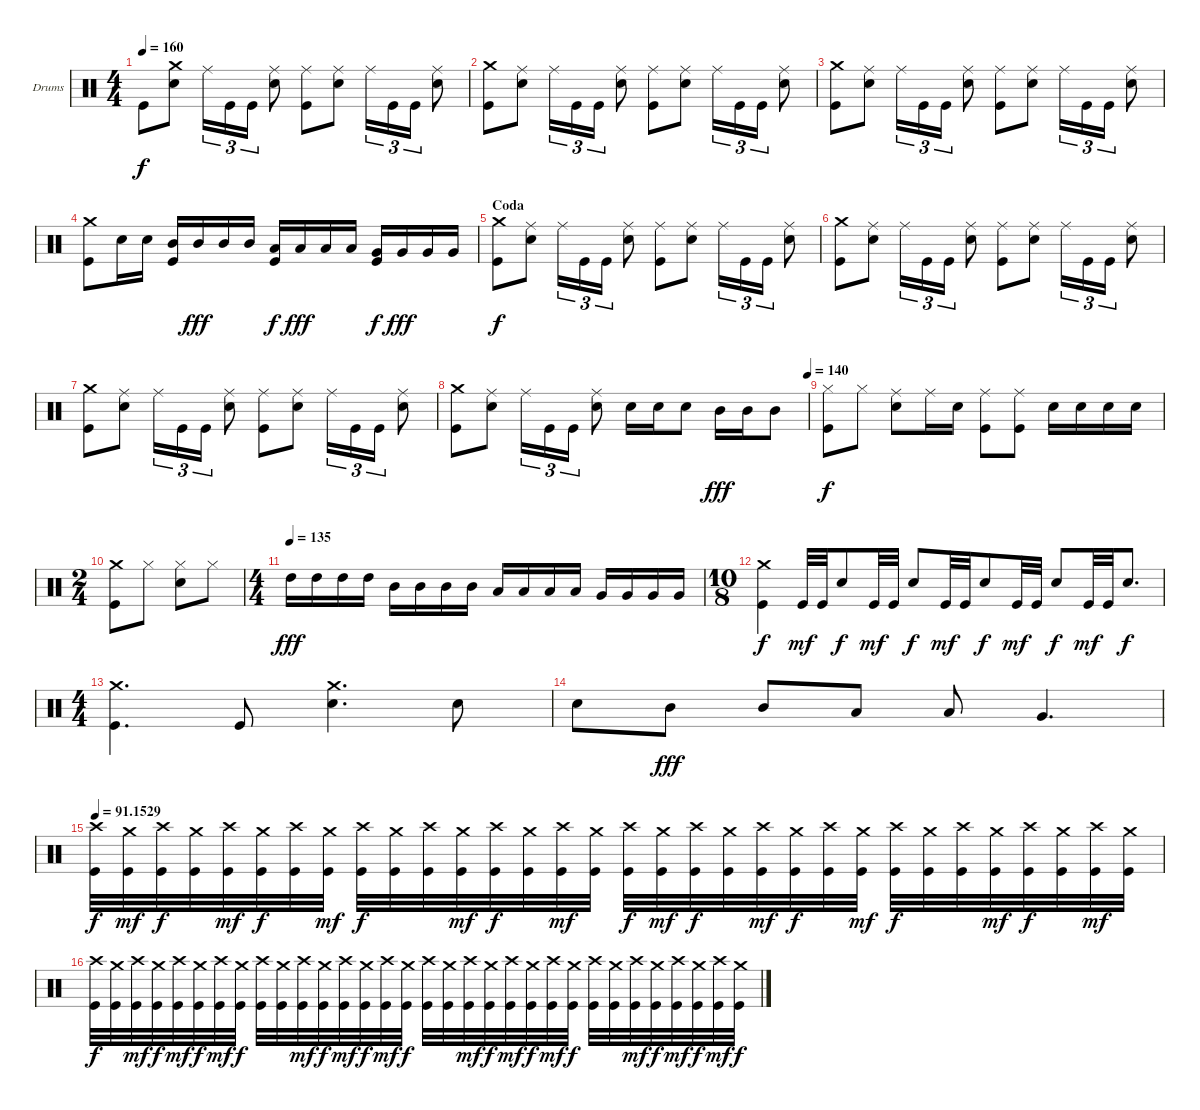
\bracketExtendMode groupsimilarinstruments
\firstSystemTrackNameOrientation horizontal
\otherSystemsTrackNameOrientation horizontal
\track ("Drums" "Drums") {instrument percussion}
\staff {score}
\articulation defaults
\ts (4 4)
\tempo 160
\clef neutral
\ks c "Kick (hit)".8{dy f}
("Crash medium (hit)" "Snare (hit) 2").8 "Ride (middle)".16{tu (3 2)} "Kick (hit)".16{tu (3 2)} "Kick (hit)".16{tu (3 2)} ("Ride (middle)" "Snare (hit) 2").8 ("Ride (middle)" "Kick (hit)").8 ("Ride (middle)" "Snare (hit) 2").8 "Ride (middle)".16{tu (3 2)} "Kick (hit)".16{tu (3 2)} "Kick (hit)".16{tu (3 2)} ("Ride (middle)" "Snare (hit) 2").8 |
("Crash medium (hit)" "Kick (hit)").8 ("Ride (middle)" "Snare (hit) 2").8 "Ride (middle)".16{tu (3 2)} "Kick (hit)".16{tu (3 2)} "Kick (hit)".16{tu (3 2)} ("Ride (middle)" "Snare (hit) 2").8 ("Ride (middle)" "Kick (hit)").8 ("Ride (middle)" "Snare (hit) 2").8 "Ride (middle)".16{tu (3 2)} "Kick (hit)".16{tu (3 2)} "Kick (hit)".16{tu (3 2)} ("Ride (middle)" "Snare (hit) 2").8 |
("Crash medium (hit)" "Kick (hit)").8 ("Ride (middle)" "Snare (hit) 2").8 "Ride (middle)".16{tu (3 2)} "Kick (hit)".16{tu (3 2)} "Kick (hit)".16{tu (3 2)} ("Ride (middle)" "Snare (hit) 2").8 ("Ride (middle)" "Kick (hit)").8 ("Ride (middle)" "Snare (hit) 2").8 "Ride (middle)".16{tu (3 2)} "Kick (hit)".16{tu (3 2)} "Kick (hit)".16{tu (3 2)} ("Ride (middle)" "Snare (hit) 2").8 |
("Crash medium (hit)" "Kick (hit)").8 "Snare (hit) 2".16 "Snare (hit) 2".16 ("Mid Tom (hit)" "Kick (hit)").16 "Mid Tom (hit)".16{dy fff} "Mid Tom (hit)".16 "Mid Tom (hit)".16 ("Low Tom (hit)" "Kick (hit)").16{dy f} "Low Tom (hit)".16{dy fff} "Low Tom (hit)".16 "Low Tom (hit)".16 ("Very Low Tom (hit)" "Kick (hit)").16{dy f} "Very Low Tom (hit)".16{dy fff} "Very Low Tom (hit)".16 "Very Low Tom (hit)".16 |
\section ("" "Coda")
("Crash medium (hit)" "Kick (hit)").8{dy f} ("Ride (middle)" "Snare (hit) 2").8 "Ride (middle)".16{tu (3 2)} "Kick (hit)".16{tu (3 2)} "Kick (hit)".16{tu (3 2)} ("Ride (middle)" "Snare (hit) 2").8 ("Ride (middle)" "Kick (hit)").8 ("Ride (middle)" "Snare (hit) 2").8 "Ride (middle)".16{tu (3 2)} "Kick (hit)".16{tu (3 2)} "Kick (hit)".16{tu (3 2)} ("Ride (middle)" "Snare (hit) 2").8 |
("Crash medium (hit)" "Kick (hit)").8 ("Ride (middle)" "Snare (hit) 2").8 "Ride (middle)".16{tu (3 2)} "Kick (hit)".16{tu (3 2)} "Kick (hit)".16{tu (3 2)} ("Ride (middle)" "Snare (hit) 2").8 ("Ride (middle)" "Kick (hit)").8 ("Ride (middle)" "Snare (hit) 2").8 "Ride (middle)".16{tu (3 2)} "Kick (hit)".16{tu (3 2)} "Kick (hit)".16{tu (3 2)} ("Ride (middle)" "Snare (hit) 2").8 |
("Crash medium (hit)" "Kick (hit)").8 ("Ride (middle)" "Snare (hit) 2").8 "Ride (middle)".16{tu (3 2)} "Kick (hit)".16{tu (3 2)} "Kick (hit)".16{tu (3 2)} ("Ride (middle)" "Snare (hit) 2").8 ("Ride (middle)" "Kick (hit)").8 ("Ride (middle)" "Snare (hit) 2").8 "Ride (middle)".16{tu (3 2)} "Kick (hit)".16{tu (3 2)} "Kick (hit)".16{tu (3 2)} ("Ride (middle)" "Snare (hit) 2").8 |
\tempo (140 1)
("Crash medium (hit)" "Kick (hit)").8 ("Ride (middle)" "Snare (hit) 2").8 "Ride (middle)".16{tu (3 2)} "Kick (hit)".16{tu (3 2)} "Kick (hit)".16{tu (3 2)} ("Ride (middle)" "Snare (hit) 2").8 "Snare (hit) 2".16 "Snare (hit) 2".16 "Snare (hit) 2".8 "Mid Tom (hit)".16{dy fff} "Mid Tom (hit)".16 "Mid Tom (hit)".8 |
("Hi-Hat (closed)" "Kick (hit)").8{dy f} "Hi-Hat (closed)".8 ("Snare (hit) 2" "Ride (middle)").8 "Ride (middle)".16 "Snare (hit) 2".16 ("Kick (hit)" "Ride (middle)").8 ("Kick (hit)" "Ride (middle)").8 "Snare (hit) 2".16 "Snare (hit) 2".16 "Snare (hit) 2".16 "Snare (hit) 2".16 |
\ts (2 4)
("Crash medium (hit)" "Kick (hit)").8 "Hi-Hat (closed)".8 ("Hi-Hat (closed)" "Snare (hit) 2").8 "Hi-Hat (closed)".8 |
\ts (4 4)
\tempo (135)
"High Tom (hit)".16{dy fff} "High Tom (hit)".16 "High Tom (hit)".16 "High Tom (hit)".16 "Mid Tom (hit)".16 "Mid Tom (hit)".16 "Mid Tom (hit)".16 "Mid Tom (hit)".16 "Low Tom (hit)".16 "Low Tom (hit)".16 "Low Tom (hit)".16 "Low Tom (hit)".16 "Very Low Tom (hit)".16 "Very Low Tom (hit)".16 "Very Low Tom (hit)".16 "Very Low Tom (hit)".16 |
\ts (10 8)
("Crash medium (hit)" "Kick (hit)").4{dy f} "Kick (hit)".32{dy mf} "Kick (hit)".32 "Snare (hit) 2".8{dy f} "Kick (hit)".32{dy mf} "Kick (hit)".32 "Snare (hit) 2".8{dy f} "Kick (hit)".32{dy mf} "Kick (hit)".32 "Snare (hit) 2".8{dy f} "Kick (hit)".32{dy mf} "Kick (hit)".32 "Snare (hit) 2".8{dy f} "Kick (hit)".32{dy mf} "Kick (hit)".32 "Snare (hit) 2".8{d dy f} |
\ts (4 4)
("Crash medium (hit)" "Kick (hit)").4{d} "Kick (hit)".8 ("Snare (hit) 2" "Crash medium (hit)").4{d} "Snare (hit) 2".8 |
"Snare (hit) 2".8 "Mid Tom (hit)".8{dy fff} "Mid Tom (hit)".8 "Low Tom (hit)".8 "Low Tom (hit)".8 "Very Low Tom (hit)".4{d} |
\tempo
91.1529 ("Kick (hit)" "Crash high (hit)").32{dy f} ("Kick (hit)" "Crash medium (hit)").32{dy mf} ("Kick (hit)" "Crash high (hit)").32{dy f} ("Kick (hit)" "Crash medium (hit)").32 ("Kick (hit)" "Crash high (hit)").32{dy mf} ("Kick (hit)" "Crash medium (hit)").32{dy f} ("Kick (hit)" "Crash high (hit)").32 ("Kick (hit)" "Crash medium (hit)").32{dy mf} ("Kick (hit)" "Crash high (hit)").32{dy f} ("Kick (hit)" "Crash medium (hit)").32 ("Kick (hit)" "Crash high (hit)").32 ("Kick (hit)" "Crash medium (hit)").32{dy mf} ("Kick (hit)" "Crash high (hit)").32{dy f} ("Kick (hit)" "Crash medium (hit)").32 ("Kick (hit)" "Crash high (hit)").32{dy mf} ("Kick (hit)" "Crash medium (hit)").32 ("Kick (hit)" "Crash high (hit)").32{dy f} ("Kick (hit)" "Crash medium (hit)").32{dy mf} ("Kick (hit)" "Crash high (hit)").32{dy f} ("Kick (hit)" "Crash medium (hit)").32 ("Kick (hit)" "Crash high (hit)").32{dy mf} ("Kick (hit)" "Crash medium (hit)").32{dy f} ("Kick (hit)" "Crash high (hit)").32 ("Kick (hit)" "Crash medium (hit)").32{dy mf} ("Kick (hit)" "Crash high (hit)").32{dy f} ("Kick (hit)" "Crash medium (hit)").32 ("Kick (hit)" "Crash high (hit)").32 ("Kick (hit)" "Crash medium (hit)").32{dy mf} ("Kick (hit)" "Crash high (hit)").32{dy f} ("Kick (hit)" "Crash medium (hit)").32 ("Kick (hit)" "Crash high (hit)").32{dy mf} ("Kick (hit)" "Crash medium (hit)").32 |
("Kick (hit)" "Crash high (hit)").32{dy f} ("Kick (hit)" "Crash medium (hit)").32 ("Kick (hit)" "Crash high (hit)").32{dy mf} ("Kick (hit)" "Crash medium (hit)").32{dy f} ("Kick (hit)" "Crash high (hit)").32{dy mf} ("Kick (hit)" "Crash medium (hit)").32{dy f} ("Kick (hit)" "Crash high (hit)").32{dy mf} ("Kick (hit)" "Crash medium (hit)").32{dy f} ("Kick (hit)" "Crash high (hit)").32 ("Kick (hit)" "Crash medium (hit)").32 ("Kick (hit)" "Crash high (hit)").32{dy mf} ("Kick (hit)" "Crash medium (hit)").32{dy f} ("Kick (hit)" "Crash high (hit)").32{dy mf} ("Kick (hit)" "Crash medium (hit)").32{dy f} ("Kick (hit)" "Crash high (hit)").32{dy mf} ("Kick (hit)" "Crash medium (hit)").32{dy f} ("Kick (hit)" "Crash high (hit)").32 ("Kick (hit)" "Crash medium (hit)").32 ("Kick (hit)" "Crash high (hit)").32{dy mf} ("Kick (hit)" "Crash medium (hit)").32{dy f} ("Kick (hit)" "Crash high (hit)").32{dy mf} ("Kick (hit)" "Crash medium (hit)").32{dy f} ("Kick (hit)" "Crash high (hit)").32{dy mf} ("Kick (hit)" "Crash medium (hit)").32{dy f} ("Kick (hit)" "Crash high (hit)").32 ("Kick (hit)" "Crash medium (hit)").32 ("Kick (hit)" "Crash high (hit)").32{dy mf} ("Kick (hit)" "Crash medium (hit)").32{dy f} ("Kick (hit)" "Crash high (hit)").32{dy mf} ("Kick (hit)" "Crash medium (hit)").32{dy f} ("Kick (hit)" "Crash high (hit)").32{dy mf} ("Kick (hit)" "Crash medium (hit)").32{dy f}
